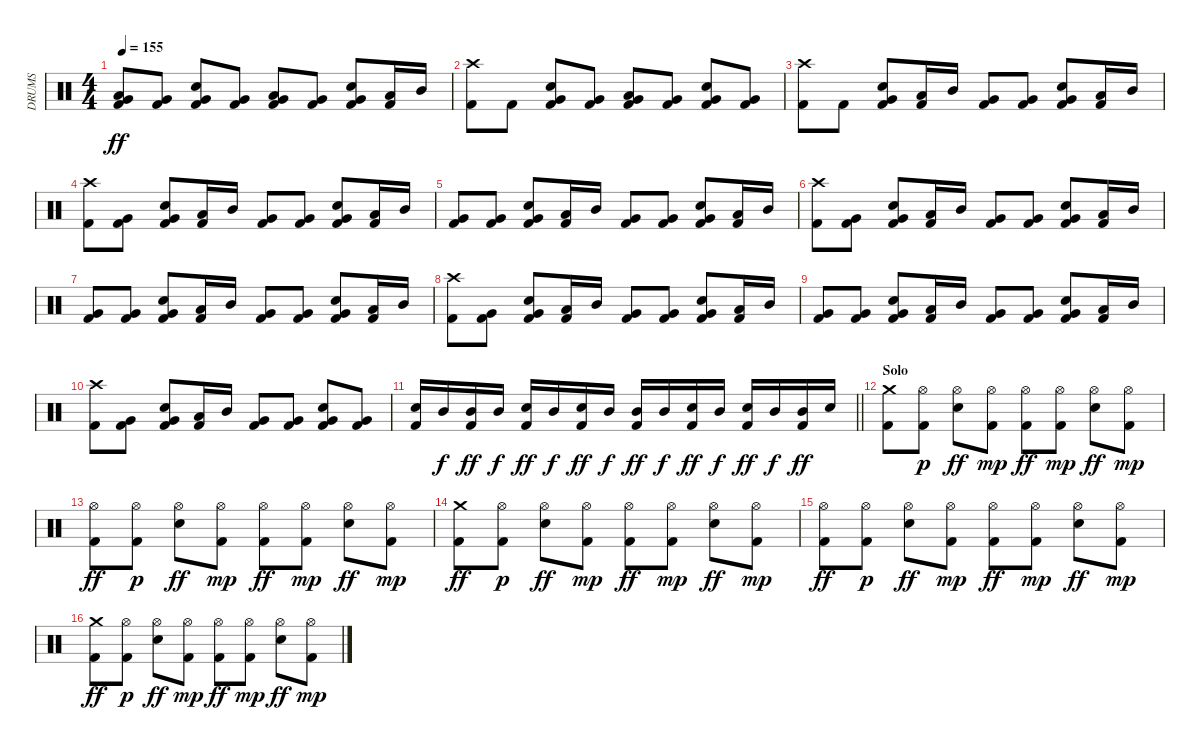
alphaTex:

\track ("DRUMS" "DRUMS") {instrument percussion}
\staff {score}
\articulation defaults
\ts (4 4)
\tempo 155
\clef neutral
\ks c
("Low Tom (hit)" "Very Low Tom (hit)" "Kick (hit) 2").8{dy ff} ("Very Low Tom (hit)" "Kick (hit) 2").8 ("Snare (hit) 2" "Very Low Tom (hit)" "Kick (hit) 2").8 ("Very Low Tom (hit)" "Kick (hit) 2").8 ("Low Tom (hit)" "Very Low Tom (hit)" "Kick (hit) 2").8 ("Very Low Tom (hit)" "Kick (hit) 2").8 ("Snare (hit) 2" "Very Low Tom (hit)" "Kick (hit) 2").8 ("Low Tom (hit)" "Kick (hit) 2").16 "Mid Tom (hit)".16 |
("Crash high (hit)" "Kick (hit) 2").8 "Kick (hit) 2".8 ("Snare (hit) 2" "Very Low Tom (hit)" "Kick (hit) 2").8 ("Very Low Tom (hit)" "Kick (hit) 2").8 ("Low Tom (hit)" "Very Low Tom (hit)" "Kick (hit) 2").8 ("Very Low Tom (hit)" "Kick (hit) 2").8 ("Snare (hit) 2" "Very Low Tom (hit)" "Kick (hit) 2").8 ("Very Low Tom (hit)" "Kick (hit) 2").8 |
("Crash high (hit)" "Kick (hit) 2").8 "Kick (hit) 2".8 ("Snare (hit) 2" "Very Low Tom (hit)" "Kick (hit) 2").8 ("Low Tom (hit)" "Kick (hit) 2").16 "Mid Tom (hit)".16 ("Very Low Tom (hit)" "Kick (hit) 2").8 ("Very Low Tom (hit)" "Kick (hit) 2").8 ("Snare (hit) 2" "Very Low Tom (hit)" "Kick (hit) 2").8 ("Low Tom (hit)" "Kick (hit) 2").16 "Mid Tom (hit)".16 |
("Crash high (hit)" "Kick (hit) 2").8 ("Very Low Tom (hit)" "Kick (hit) 2").8 ("Snare (hit) 2" "Very Low Tom (hit)" "Kick (hit) 2").8 ("Low Tom (hit)" "Kick (hit) 2").16 "Mid Tom (hit)".16 ("Very Low Tom (hit)" "Kick (hit) 2").8 ("Very Low Tom (hit)" "Kick (hit) 2").8 ("Snare (hit) 2" "Very Low Tom (hit)" "Kick (hit) 2").8 ("Low Tom (hit)" "Kick (hit) 2").16 "Mid Tom (hit)".16 |
("Very Low Tom (hit)" "Kick (hit) 2").8 ("Very Low Tom (hit)" "Kick (hit) 2").8 ("Snare (hit) 2" "Very Low Tom (hit)" "Kick (hit) 2").8 ("Low Tom (hit)" "Kick (hit) 2").16 "Mid Tom (hit)".16 ("Very Low Tom (hit)" "Kick (hit) 2").8 ("Very Low Tom (hit)" "Kick (hit) 2").8 ("Snare (hit) 2" "Very Low Tom (hit)" "Kick (hit) 2").8 ("Low Tom (hit)" "Kick (hit) 2").16 "Mid Tom (hit)".16 |
("Crash high (hit)" "Kick (hit) 2").8 ("Very Low Tom (hit)" "Kick (hit) 2").8 ("Snare (hit) 2" "Very Low Tom (hit)" "Kick (hit) 2").8 ("Low Tom (hit)" "Kick (hit) 2").16 "Mid Tom (hit)".16 ("Very Low Tom (hit)" "Kick (hit) 2").8 ("Very Low Tom (hit)" "Kick (hit) 2").8 ("Snare (hit) 2" "Very Low Tom (hit)" "Kick (hit) 2").8 ("Low Tom (hit)" "Kick (hit) 2").16 "Mid Tom (hit)".16 |
("Very Low Tom (hit)" "Kick (hit) 2").8 ("Very Low Tom (hit)" "Kick (hit) 2").8 ("Snare (hit) 2" "Very Low Tom (hit)" "Kick (hit) 2").8 ("Low Tom (hit)" "Kick (hit) 2").16 "Mid Tom (hit)".16 ("Very Low Tom (hit)" "Kick (hit) 2").8 ("Very Low Tom (hit)" "Kick (hit) 2").8 ("Snare (hit) 2" "Very Low Tom (hit)" "Kick (hit) 2").8 ("Low Tom (hit)" "Kick (hit) 2").16 "Mid Tom (hit)".16 |
("Crash high (hit)" "Kick (hit) 2").8 ("Very Low Tom (hit)" "Kick (hit) 2").8 ("Snare (hit) 2" "Very Low Tom (hit)" "Kick (hit) 2").8 ("Low Tom (hit)" "Kick (hit) 2").16 "Mid Tom (hit)".16 ("Very Low Tom (hit)" "Kick (hit) 2").8 ("Very Low Tom (hit)" "Kick (hit) 2").8 ("Snare (hit) 2" "Very Low Tom (hit)" "Kick (hit) 2").8 ("Low Tom (hit)" "Kick (hit) 2").16 "Mid Tom (hit)".16 |
("Very Low Tom (hit)" "Kick (hit) 2").8 ("Very Low Tom (hit)" "Kick (hit) 2").8 ("Snare (hit) 2" "Very Low Tom (hit)" "Kick (hit) 2").8 ("Low Tom (hit)" "Kick (hit) 2").16 "Mid Tom (hit)".16 ("Very Low Tom (hit)" "Kick (hit) 2").8 ("Very Low Tom (hit)" "Kick (hit) 2").8 ("Snare (hit) 2" "Very Low Tom (hit)" "Kick (hit) 2").8 ("Low Tom (hit)" "Kick (hit) 2").16 "Mid Tom (hit)".16 |
("Crash high (hit)" "Kick (hit) 2").8 ("Very Low Tom (hit)" "Kick (hit) 2").8 ("Snare (hit) 2" "Very Low Tom (hit)" "Kick (hit) 2").8 ("Low Tom (hit)" "Kick (hit) 2").16 "Mid Tom (hit)".16 ("Very Low Tom (hit)" "Kick (hit) 2").8 ("Very Low Tom (hit)" "Kick (hit) 2").8 ("Snare (hit) 2" "Very Low Tom (hit)" "Kick (hit) 2").8 ("Very Low Tom (hit)" "Kick (hit) 2").8 |
\barLineRight lightlight
("Electric Snare (hit)" "Kick (hit) 2").16 "Mid Tom (hit)".16{dy f} ("Mid Tom (hit)" "Kick (hit) 2").16{dy ff} "Mid Tom (hit)".16{dy f} ("Electric Snare (hit)" "Kick (hit) 2").16{dy ff} "Mid Tom (hit)".16{dy f} ("Electric Snare (hit)" "Kick (hit) 2").16{dy ff} "Mid Tom (hit)".16{dy f} ("Mid Tom (hit)" "Kick (hit) 2").16{dy ff} "Mid Tom (hit)".16{dy f} ("Electric Snare (hit)" "Kick (hit) 2").16{dy ff} "Mid Tom (hit)".16{dy f} ("Electric Snare (hit)" "Kick (hit) 2").16{dy ff} "Mid Tom (hit)".16{dy f} ("Mid Tom (hit)" "Kick (hit) 2").16{dy ff} "Snare (hit) 2".16 |
\section ("" "Solo")
("Crash medium (hit)" "Kick (hit) 2").8 ("Hi-Hat (open)" "Kick (hit) 2").8{dy p} ("Hi-Hat (open)" "Snare (hit) 2").8{dy ff} ("Hi-Hat (open)" "Kick (hit) 2").8{dy mp} ("Hi-Hat (open)" "Kick (hit) 2").8{dy ff} ("Hi-Hat (open)" "Kick (hit) 2").8{dy mp} ("Hi-Hat (open)" "Snare (hit) 2").8{dy ff} ("Hi-Hat (open)" "Kick (hit) 2").8{dy mp} |
("Hi-Hat (open)" "Kick (hit) 2").8{dy ff} ("Hi-Hat (open)" "Kick (hit) 2").8{dy p} ("Hi-Hat (open)" "Snare (hit) 2").8{dy ff} ("Hi-Hat (open)" "Kick (hit) 2").8{dy mp} ("Hi-Hat (open)" "Kick (hit) 2").8{dy ff} ("Hi-Hat (open)" "Kick (hit) 2").8{dy mp} ("Hi-Hat (open)" "Snare (hit) 2").8{dy ff} ("Hi-Hat (open)" "Kick (hit) 2").8{dy mp} |
("Crash medium (hit)" "Kick (hit) 2").8{dy ff} ("Hi-Hat (open)" "Kick (hit) 2").8{dy p} ("Hi-Hat (open)" "Snare (hit) 2").8{dy ff} ("Hi-Hat (open)" "Kick (hit) 2").8{dy mp} ("Hi-Hat (open)" "Kick (hit) 2").8{dy ff} ("Hi-Hat (open)" "Kick (hit) 2").8{dy mp} ("Hi-Hat (open)" "Snare (hit) 2").8{dy ff} ("Hi-Hat (open)" "Kick (hit) 2").8{dy mp} |
("Hi-Hat (open)" "Kick (hit) 2").8{dy ff} ("Hi-Hat (open)" "Kick (hit) 2").8{dy p} ("Hi-Hat (open)" "Snare (hit) 2").8{dy ff} ("Hi-Hat (open)" "Kick (hit) 2").8{dy mp} ("Hi-Hat (open)" "Kick (hit) 2").8{dy ff} ("Hi-Hat (open)" "Kick (hit) 2").8{dy mp} ("Hi-Hat (open)" "Snare (hit) 2").8{dy ff} ("Hi-Hat (open)" "Kick (hit) 2").8{dy mp} |
("Crash medium (hit)" "Kick (hit) 2").8{dy ff} ("Hi-Hat (open)" "Kick (hit) 2").8{dy p} ("Hi-Hat (open)" "Snare (hit) 2").8{dy ff} ("Hi-Hat (open)" "Kick (hit) 2").8{dy mp} ("Hi-Hat (open)" "Kick (hit) 2").8{dy ff} ("Hi-Hat (open)" "Kick (hit) 2").8{dy mp} ("Hi-Hat (open)" "Snare (hit) 2").8{dy ff} ("Hi-Hat (open)" "Kick (hit) 2").8{dy mp}
